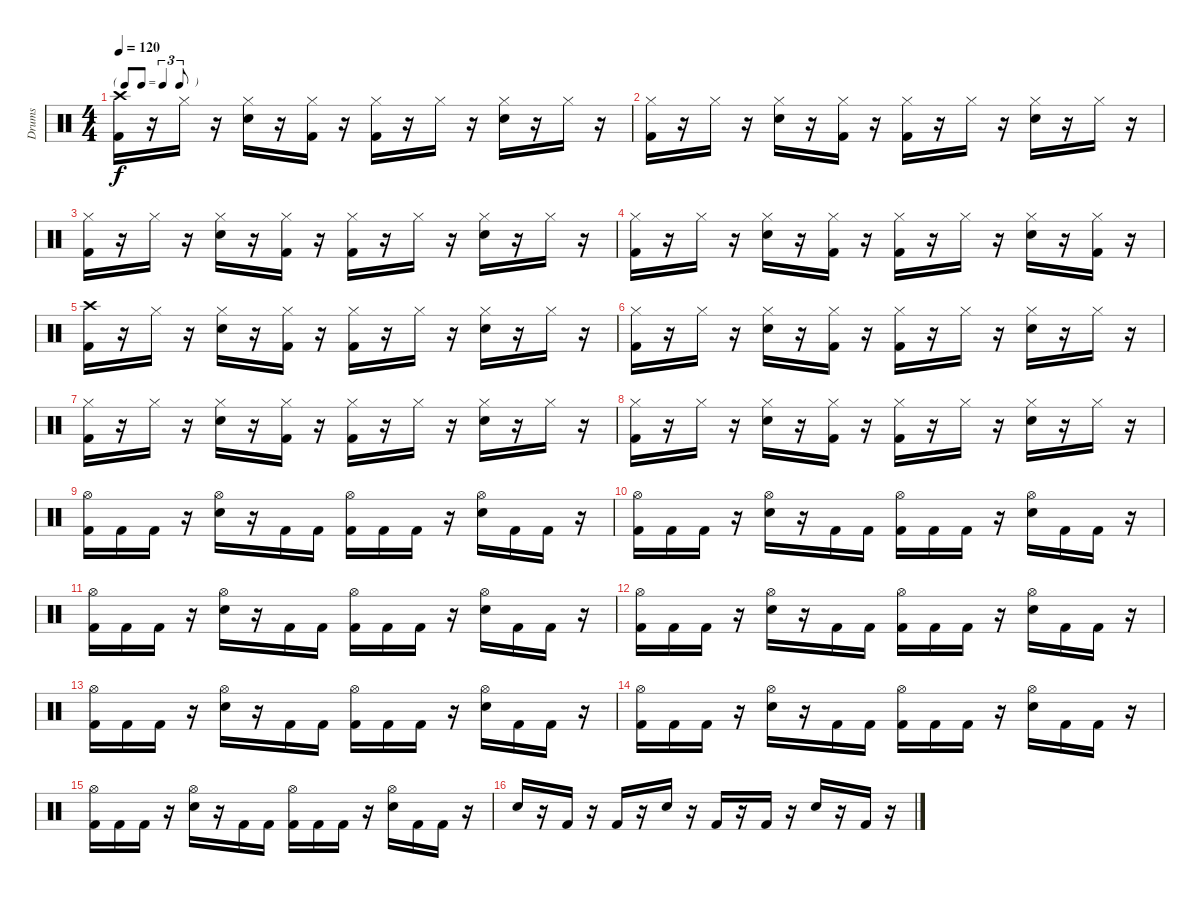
\track ("Drums" "Drums") {instrument percussion}
\staff {score}
\articulation defaults
\ts (4 4)
\tf triplet8th
\tempo 120
\clef neutral
\ks c
("Crash high (hit)" "Kick (hit) 2").16{dy f} r.16 "Hi-Hat (closed)".16 r.16 ("Hi-Hat (closed)" "Electric Snare (hit)").16 r.16 ("Hi-Hat (closed)" "Kick (hit) 2").16 r.16 ("Hi-Hat (closed)" "Kick (hit) 2").16 r.16 "Hi-Hat (closed)".16 r.16 ("Hi-Hat (closed)" "Electric Snare (hit)").16 r.16 "Hi-Hat (closed)".16 r.16 |
("Hi-Hat (closed)" "Kick (hit) 2").16 r.16 "Hi-Hat (closed)".16 r.16 ("Hi-Hat (closed)" "Electric Snare (hit)").16 r.16 ("Hi-Hat (closed)" "Kick (hit) 2").16 r.16 ("Hi-Hat (closed)" "Kick (hit) 2").16 r.16 "Hi-Hat (closed)".16 r.16 ("Hi-Hat (closed)" "Electric Snare (hit)").16 r.16 "Hi-Hat (closed)".16 r.16 |
("Hi-Hat (closed)" "Kick (hit) 2").16 r.16 "Hi-Hat (closed)".16 r.16 ("Hi-Hat (closed)" "Electric Snare (hit)").16 r.16 ("Hi-Hat (closed)" "Kick (hit) 2").16 r.16 ("Hi-Hat (closed)" "Kick (hit) 2").16 r.16 "Hi-Hat (closed)".16 r.16 ("Hi-Hat (closed)" "Electric Snare (hit)").16 r.16 "Hi-Hat (closed)".16 r.16 |
("Hi-Hat (closed)" "Kick (hit) 2").16 r.16 "Hi-Hat (closed)".16 r.16 ("Hi-Hat (closed)" "Electric Snare (hit)").16 r.16 ("Hi-Hat (closed)" "Kick (hit) 2").16 r.16 ("Hi-Hat (closed)" "Kick (hit) 2").16 r.16 "Hi-Hat (closed)".16 r.16 ("Hi-Hat (closed)" "Electric Snare (hit)").16 r.16 ("Hi-Hat (closed)" "Kick (hit) 2").16 r.16 |
("Crash high (hit)" "Kick (hit) 2").16 r.16 "Hi-Hat (closed)".16 r.16 ("Hi-Hat (closed)" "Electric Snare (hit)").16 r.16 ("Hi-Hat (closed)" "Kick (hit) 2").16 r.16 ("Hi-Hat (closed)" "Kick (hit) 2").16 r.16 "Hi-Hat (closed)".16 r.16 ("Hi-Hat (closed)" "Electric Snare (hit)").16 r.16 "Hi-Hat (closed)".16 r.16 |
("Hi-Hat (closed)" "Kick (hit) 2").16 r.16 "Hi-Hat (closed)".16 r.16 ("Hi-Hat (closed)" "Electric Snare (hit)").16 r.16 ("Hi-Hat (closed)" "Kick (hit) 2").16 r.16 ("Hi-Hat (closed)" "Kick (hit) 2").16 r.16 "Hi-Hat (closed)".16 r.16 ("Hi-Hat (closed)" "Electric Snare (hit)").16 r.16 "Hi-Hat (closed)".16 r.16 |
("Hi-Hat (closed)" "Kick (hit) 2").16 r.16 "Hi-Hat (closed)".16 r.16 ("Hi-Hat (closed)" "Electric Snare (hit)").16 r.16 ("Hi-Hat (closed)" "Kick (hit) 2").16 r.16 ("Hi-Hat (closed)" "Kick (hit) 2").16 r.16 "Hi-Hat (closed)".16 r.16 ("Hi-Hat (closed)" "Electric Snare (hit)").16 r.16 "Hi-Hat (closed)".16 r.16 |
("Hi-Hat (closed)" "Kick (hit) 2").16 r.16 "Hi-Hat (closed)".16 r.16 ("Hi-Hat (closed)" "Electric Snare (hit)").16 r.16 ("Hi-Hat (closed)" "Kick (hit) 2").16 r.16 ("Hi-Hat (closed)" "Kick (hit) 2").16 r.16 "Hi-Hat (closed)".16 r.16 ("Hi-Hat (closed)" "Electric Snare (hit)").16 r.16 "Hi-Hat (closed)".16 r.16 |
("Hi-Hat (open)" "Kick (hit) 2").16 "Kick (hit) 2".16 "Kick (hit) 2".16 r.16 ("Hi-Hat (open)" "Electric Snare (hit)").16 r.16 "Kick (hit) 2".16 "Kick (hit) 2".16 ("Hi-Hat (open)" "Kick (hit) 2").16 "Kick (hit) 2".16 "Kick (hit) 2".16 r.16 ("Hi-Hat (open)" "Electric Snare (hit)").16 "Kick (hit) 2".16 "Kick (hit) 2".16 r.16 |
("Hi-Hat (open)" "Kick (hit) 2").16 "Kick (hit) 2".16 "Kick (hit) 2".16 r.16 ("Hi-Hat (open)" "Electric Snare (hit)").16 r.16 "Kick (hit) 2".16 "Kick (hit) 2".16 ("Hi-Hat (open)" "Kick (hit) 2").16 "Kick (hit) 2".16 "Kick (hit) 2".16 r.16 ("Hi-Hat (open)" "Electric Snare (hit)").16 "Kick (hit) 2".16 "Kick (hit) 2".16 r.16 |
("Hi-Hat (open)" "Kick (hit) 2").16 "Kick (hit) 2".16 "Kick (hit) 2".16 r.16 ("Hi-Hat (open)" "Electric Snare (hit)").16 r.16 "Kick (hit) 2".16 "Kick (hit) 2".16 ("Hi-Hat (open)" "Kick (hit) 2").16 "Kick (hit) 2".16 "Kick (hit) 2".16 r.16 ("Hi-Hat (open)" "Electric Snare (hit)").16 "Kick (hit) 2".16 "Kick (hit) 2".16 r.16 |
("Hi-Hat (open)" "Kick (hit) 2").16 "Kick (hit) 2".16 "Kick (hit) 2".16 r.16 ("Hi-Hat (open)" "Electric Snare (hit)").16 r.16 "Kick (hit) 2".16 "Kick (hit) 2".16 ("Hi-Hat (open)" "Kick (hit) 2").16 "Kick (hit) 2".16 "Kick (hit) 2".16 r.16 ("Hi-Hat (open)" "Electric Snare (hit)").16 "Kick (hit) 2".16 "Kick (hit) 2".16 r.16 |
("Hi-Hat (open)" "Kick (hit) 2").16 "Kick (hit) 2".16 "Kick (hit) 2".16 r.16 ("Hi-Hat (open)" "Electric Snare (hit)").16 r.16 "Kick (hit) 2".16 "Kick (hit) 2".16 ("Hi-Hat (open)" "Kick (hit) 2").16 "Kick (hit) 2".16 "Kick (hit) 2".16 r.16 ("Hi-Hat (open)" "Electric Snare (hit)").16 "Kick (hit) 2".16 "Kick (hit) 2".16 r.16 |
("Hi-Hat (open)" "Kick (hit) 2").16 "Kick (hit) 2".16 "Kick (hit) 2".16 r.16 ("Hi-Hat (open)" "Electric Snare (hit)").16 r.16 "Kick (hit) 2".16 "Kick (hit) 2".16 ("Hi-Hat (open)" "Kick (hit) 2").16 "Kick (hit) 2".16 "Kick (hit) 2".16 r.16 ("Hi-Hat (open)" "Electric Snare (hit)").16 "Kick (hit) 2".16 "Kick (hit) 2".16 r.16 |
("Hi-Hat (open)" "Kick (hit) 2").16 "Kick (hit) 2".16 "Kick (hit) 2".16 r.16 ("Hi-Hat (open)" "Electric Snare (hit)").16 r.16 "Kick (hit) 2".16 "Kick (hit) 2".16 ("Hi-Hat (open)" "Kick (hit) 2").16 "Kick (hit) 2".16 "Kick (hit) 2".16 r.16 ("Hi-Hat (open)" "Electric Snare (hit)").16 "Kick (hit) 2".16 "Kick (hit) 2".16 r.16 |
"Electric Snare (hit)".16 r.16 "Kick (hit) 2".16 r.16 "Kick (hit) 2".16 r.16 "Electric Snare (hit)".16 r.16 "Kick (hit) 2".16 r.16 "Kick (hit) 2".16 r.16 "Electric Snare (hit)".16 r.16 "Kick (hit) 2".16 r.16
